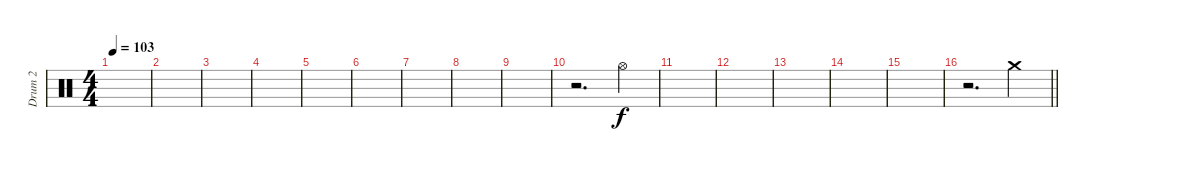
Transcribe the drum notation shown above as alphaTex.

\track ("Drum 2" "Drum 2") {instrument percussion}
\staff {score}
\articulation defaults
\ts (4 4)
\tempo 103
\clef neutral
\ks c
|
|
|
|
|
|
|
|
|
r.2{d} "Hi-Hat (open)".4 |
|
|
|
|
|
\barLineRight lightlight
r.2{d} "Crash medium (hit)".4
